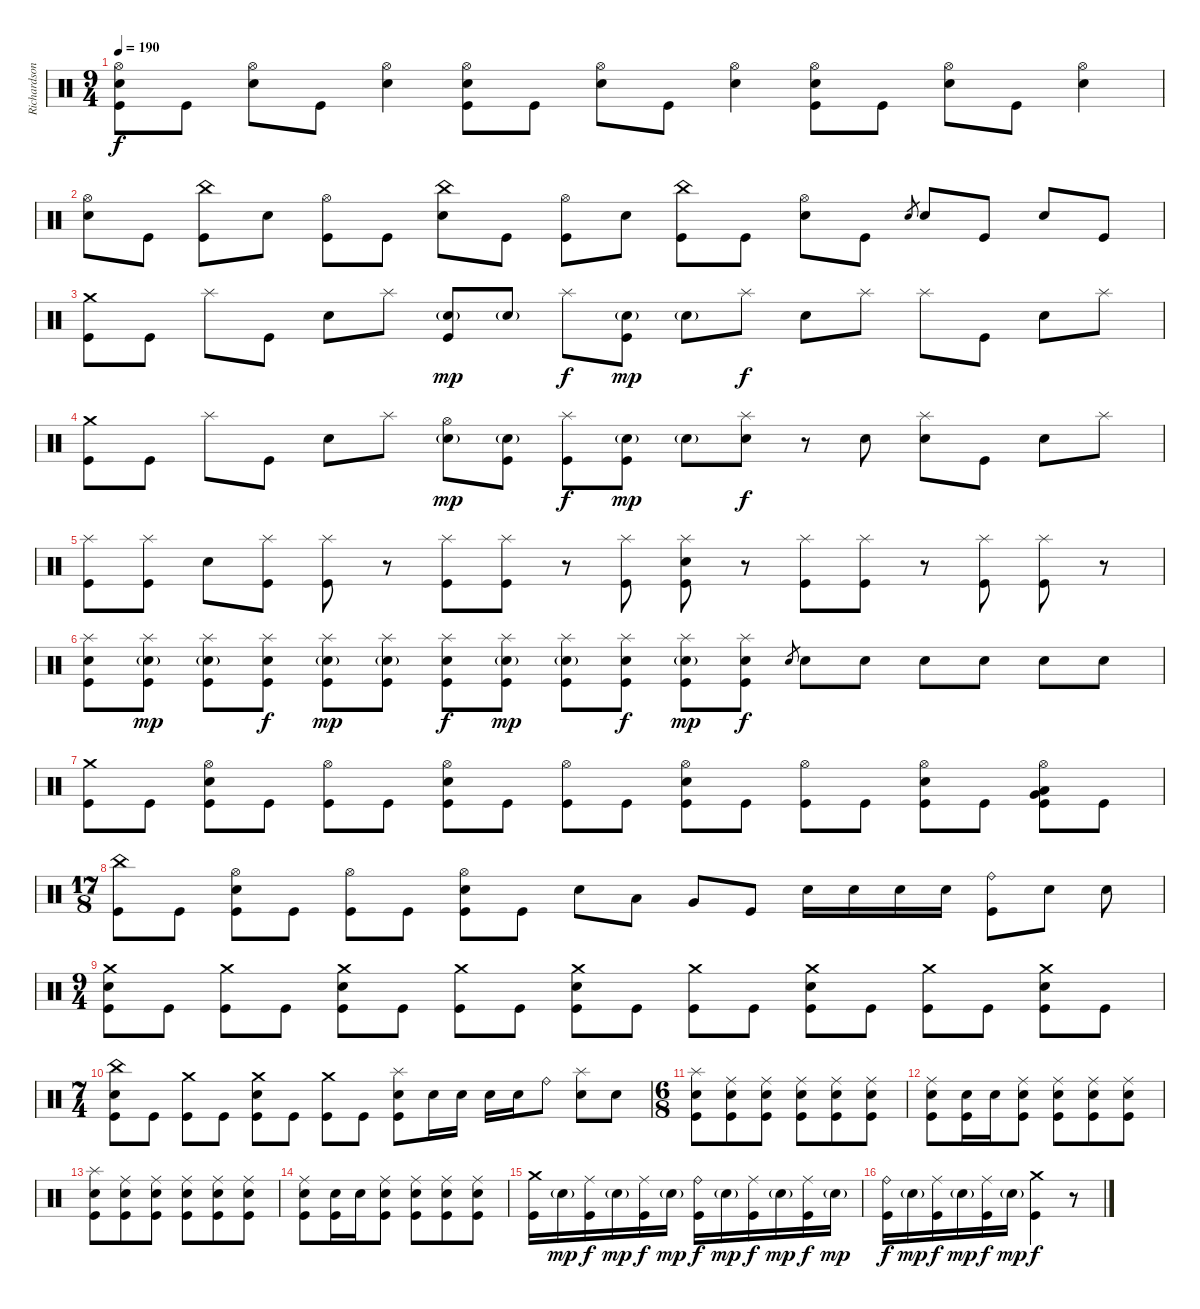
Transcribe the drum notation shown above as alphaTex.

\track ("Richardson" "Richardson") {instrument percussion}
\staff {score}
\articulation defaults
\ts (9 4)
\tempo 190
\clef neutral
\ks c
("Hi-Hat (open)" "Electric Snare (hit)" "Kick (hit)").8{dy f} "Kick (hit)".8 ("Hi-Hat (open)" "Electric Snare (hit)").8 "Kick (hit)".8 ("Hi-Hat (open)" "Electric Snare (hit)").4 ("Hi-Hat (open)" "Electric Snare (hit)" "Kick (hit)").8 "Kick (hit)".8 ("Hi-Hat (open)" "Electric Snare (hit)").8 "Kick (hit)".8 ("Hi-Hat (open)" "Electric Snare (hit)").4 ("Hi-Hat (open)" "Electric Snare (hit)" "Kick (hit)").8 "Kick (hit)".8 ("Hi-Hat (open)" "Electric Snare (hit)").8 "Kick (hit)".8 ("Hi-Hat (open)" "Electric Snare (hit)").4 |
("Hi-Hat (open)" "Electric Snare (hit)").8 "Kick (hit)".8 ("China (hit)" "Kick (hit)").8 "Electric Snare (hit)".8 ("Hi-Hat (open)" "Kick (hit)").8 "Kick (hit)".8 ("China (hit)" "Electric Snare (hit)").8 "Kick (hit)".8 ("Hi-Hat (open)" "Kick (hit)").8 "Electric Snare (hit)".8 ("China (hit)" "Kick (hit)").8 "Kick (hit)".8 ("Hi-Hat (open)" "Electric Snare (hit)").8 "Kick (hit)".8 "Electric Snare (hit)".8{gr} "Electric Snare (hit)".8 "Kick (hit)".8 "Electric Snare (hit)".8 "Kick (hit)".8 |
("Crash medium (hit)" "Kick (hit)").8 "Kick (hit)".8 "Splash (hit)".8 "Kick (hit)".8 "Electric Snare (hit)".8 "Splash (hit)".8 ("Electric Snare (hit)"{g} "Kick (hit)").8{dy mp} "Electric Snare (hit)"{g}.8 "Splash (hit)".8{dy f} ("Electric Snare (hit)"{g} "Kick (hit)").8{dy mp} "Electric Snare (hit)"{g}.8 "Splash (hit)".8{dy f} "Electric Snare (hit)".8 "Splash (hit)".8 "Splash (hit)".8 "Kick (hit)".8 "Electric Snare (hit)".8 "Splash (hit)".8 |
("Crash medium (hit)" "Kick (hit)").8 "Kick (hit)".8 "Splash (hit)".8 "Kick (hit)".8 "Electric Snare (hit)".8 "Splash (hit)".8 ("Hi-Hat (open)" "Electric Snare (hit)"{g}).8{dy mp} ("Electric Snare (hit)"{g} "Kick (hit)").8 ("Splash (hit)" "Kick (hit)").8{dy f} ("Electric Snare (hit)"{g} "Kick (hit)").8{dy mp} "Electric Snare (hit)"{g}.8 ("Splash (hit)" "Electric Snare (hit)").8{dy f} r.8 "Electric Snare (hit)".8 ("Splash (hit)" "Electric Snare (hit)").8 "Kick (hit)".8 "Electric Snare (hit)".8 "Splash (hit)".8 |
("Splash (hit)" "Kick (hit)").8 ("Splash (hit)" "Kick (hit)").8 "Electric Snare (hit)".8 ("Splash (hit)" "Kick (hit)").8 ("Splash (hit)" "Kick (hit)").8 r.8 ("Splash (hit)" "Kick (hit)").8 ("Splash (hit)" "Kick (hit)").8 r.8 ("Splash (hit)" "Kick (hit)").8 ("Splash (hit)" "Electric Snare (hit)" "Kick (hit)").8 r.8 ("Splash (hit)" "Kick (hit)").8 ("Splash (hit)" "Kick (hit)").8 r.8 ("Splash (hit)" "Kick (hit)").8 ("Splash (hit)" "Kick (hit)").8 r.8 |
("Splash (hit)" "Electric Snare (hit)" "Kick (hit)").8 ("Splash (hit)" "Electric Snare (hit)"{g} "Kick (hit)").8{dy mp} ("Splash (hit)" "Electric Snare (hit)"{g} "Kick (hit)").8 ("Splash (hit)" "Electric Snare (hit)" "Kick (hit)").8{dy f} ("Splash (hit)" "Electric Snare (hit)"{g} "Kick (hit)").8{dy mp} ("Splash (hit)" "Electric Snare (hit)"{g} "Kick (hit)").8 ("Splash (hit)" "Electric Snare (hit)" "Kick (hit)").8{dy f} ("Splash (hit)" "Electric Snare (hit)"{g} "Kick (hit)").8{dy mp} ("Splash (hit)" "Electric Snare (hit)"{g} "Kick (hit)").8 ("Splash (hit)" "Electric Snare (hit)" "Kick (hit)").8{dy f} ("Splash (hit)" "Electric Snare (hit)"{g} "Kick (hit)").8{dy mp} ("Splash (hit)" "Electric Snare (hit)" "Kick (hit)").8{dy f} "Electric Snare (hit)".8{gr} "Electric Snare (hit)".8 "Electric Snare (hit)".8 "Electric Snare (hit)".8 "Electric Snare (hit)".8 "Electric Snare (hit)".8 "Electric Snare (hit)".8 |
("Crash medium (hit)" "Kick (hit)").8 "Kick (hit)".8 ("Hi-Hat (open)" "Electric Snare (hit)" "Kick (hit)").8 "Kick (hit)".8 ("Hi-Hat (open)" "Kick (hit)").8 "Kick (hit)".8 ("Hi-Hat (open)" "Electric Snare (hit)" "Kick (hit)").8 "Kick (hit)".8 ("Hi-Hat (open)" "Kick (hit)").8 "Kick (hit)".8 ("Hi-Hat (open)" "Electric Snare (hit)" "Kick (hit)").8 "Kick (hit)".8 ("Hi-Hat (open)" "Kick (hit)").8 "Kick (hit)".8 ("Hi-Hat (open)" "Electric Snare (hit)" "Kick (hit)").8 "Kick (hit)".8 ("Hi-Hat (open)" "Low Tom (hit)" "Very Low Tom (hit)" "Kick (hit)").8 "Kick (hit)".8 |
\ts (17 8)
("China (hit)" "Kick (hit)").8 "Kick (hit)".8 ("Hi-Hat (open)" "Electric Snare (hit)" "Kick (hit)").8 "Kick (hit)".8 ("Hi-Hat (open)" "Kick (hit)").8 "Kick (hit)".8 ("Hi-Hat (open)" "Electric Snare (hit)" "Kick (hit)").8 "Kick (hit)".8 "Electric Snare (hit)".8 "Low Tom (hit)".8 "Very Low Tom (hit)".8 "Kick (hit)".8 "Electric Snare (hit)".16 "Electric Snare (hit)".16 "Electric Snare (hit)".16 "Electric Snare (hit)".16 ("Ride (bell)" "Kick (hit)").8 "Electric Snare (hit)".8 "Electric Snare (hit)".8 |
\ts (9 4)
("Crash medium (hit)" "Electric Snare (hit)" "Kick (hit)").8 "Kick (hit)".8 ("Crash medium (hit)" "Kick (hit)").8 "Kick (hit)".8 ("Crash medium (hit)" "Electric Snare (hit)" "Kick (hit)").8 "Kick (hit)".8 ("Crash medium (hit)" "Kick (hit)").8 "Kick (hit)".8 ("Crash medium (hit)" "Electric Snare (hit)" "Kick (hit)").8 "Kick (hit)".8 ("Crash medium (hit)" "Kick (hit)").8 "Kick (hit)".8 ("Crash medium (hit)" "Electric Snare (hit)" "Kick (hit)").8 "Kick (hit)".8 ("Crash medium (hit)" "Kick (hit)").8 "Kick (hit)".8 ("Crash medium (hit)" "Electric Snare (hit)" "Kick (hit)").8 "Kick (hit)".8 |
\ts (7 4)
("China (hit)" "Electric Snare (hit)" "Kick (hit)").8 "Kick (hit)".8 ("Crash medium (hit)" "Kick (hit)").8 "Kick (hit)".8 ("Crash medium (hit)" "Electric Snare (hit)" "Kick (hit)").8 "Kick (hit)".8 ("Crash medium (hit)" "Kick (hit)").8 "Kick (hit)".8 ("Splash (hit)" "Electric Snare (hit)" "Kick (hit)").8 "Electric Snare (hit)".16 "Electric Snare (hit)".16 "Electric Snare (hit)".16 "Electric Snare (hit)".16 "Ride (bell)".8 ("Splash (hit)" "Electric Snare (hit)").8 "Electric Snare (hit)".8 |
\ts (6 8)
("Splash (hit)" "Electric Snare (hit)" "Kick (hit)").8 ("Ride (middle)" "Electric Snare (hit)" "Kick (hit)").8 ("Ride (middle)" "Electric Snare (hit)" "Kick (hit)").8 ("Ride (middle)" "Electric Snare (hit)" "Kick (hit)").8 ("Ride (middle)" "Electric Snare (hit)" "Kick (hit)").8 ("Ride (middle)" "Electric Snare (hit)" "Kick (hit)").8 |
("Ride (middle)" "Electric Snare (hit)" "Kick (hit)").8 ("Electric Snare (hit)" "Kick (hit)").16 "Electric Snare (hit)".16 ("Ride (middle)" "Electric Snare (hit)" "Kick (hit)").8 ("Ride (middle)" "Electric Snare (hit)" "Kick (hit)").8 ("Ride (middle)" "Electric Snare (hit)" "Kick (hit)").8 ("Ride (middle)" "Electric Snare (hit)" "Kick (hit)").8 |
("Splash (hit)" "Electric Snare (hit)" "Kick (hit)").8 ("Ride (middle)" "Electric Snare (hit)" "Kick (hit)").8 ("Ride (middle)" "Electric Snare (hit)" "Kick (hit)").8 ("Ride (middle)" "Electric Snare (hit)" "Kick (hit)").8 ("Ride (middle)" "Electric Snare (hit)" "Kick (hit)").8 ("Ride (middle)" "Electric Snare (hit)" "Kick (hit)").8 |
("Ride (middle)" "Electric Snare (hit)" "Kick (hit)").8 ("Electric Snare (hit)" "Kick (hit)").16 "Electric Snare (hit)".16 ("Ride (middle)" "Electric Snare (hit)" "Kick (hit)").8 ("Ride (middle)" "Electric Snare (hit)" "Kick (hit)").8 ("Ride (middle)" "Electric Snare (hit)" "Kick (hit)").8 ("Ride (middle)" "Electric Snare (hit)" "Kick (hit)").8 |
("Crash medium (hit)" "Kick (hit)").16 "Electric Snare (hit)"{g}.16{dy mp} ("Ride (middle)" "Kick (hit)").16{dy f} "Electric Snare (hit)"{g}.16{dy mp} ("Ride (middle)" "Kick (hit)").16{dy f} "Electric Snare (hit)"{g}.16{dy mp} ("Ride (bell)" "Kick (hit)").16{dy f} "Electric Snare (hit)"{g}.16{dy mp} ("Ride (middle)" "Kick (hit)").16{dy f} "Electric Snare (hit)"{g}.16{dy mp} ("Ride (middle)" "Kick (hit)").16{dy f} "Electric Snare (hit)"{g}.16{dy mp} |
("Ride (bell)" "Kick (hit)").16{dy f} "Electric Snare (hit)"{g}.16{dy mp} ("Ride (middle)" "Kick (hit)").16{dy f} "Electric Snare (hit)"{g}.16{dy mp} ("Ride (middle)" "Kick (hit)").16{dy f} "Electric Snare (hit)"{g}.16{dy mp} ("Crash medium (hit)" "Kick (hit)").4{dy f} r.8
